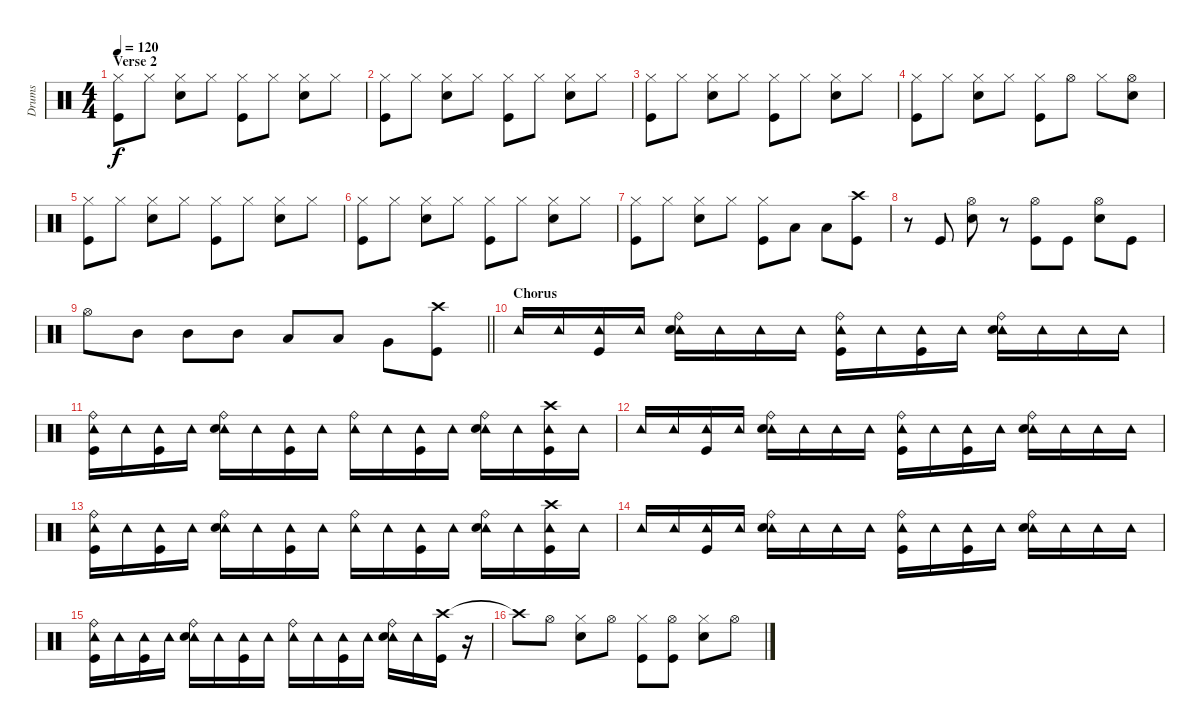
\track ("Drums" "Drums") {instrument percussion}
\staff {score}
\articulation defaults
\ts (4 4)
\section ("" "Verse 2")
\tempo 120
\clef neutral
\ks c
("Hi-Hat (closed)" "Kick (hit)").8{dy f} "Hi-Hat (closed)".8 ("Snare (hit) 2" "Hi-Hat (closed)").8 "Hi-Hat (closed)".8 ("Hi-Hat (closed)" "Kick (hit)").8 "Hi-Hat (closed)".8 ("Snare (hit) 2" "Hi-Hat (closed)").8 "Hi-Hat (closed)".8 |
("Hi-Hat (closed)" "Kick (hit)").8 "Hi-Hat (closed)".8 ("Snare (hit) 2" "Hi-Hat (closed)").8 "Hi-Hat (closed)".8 ("Hi-Hat (closed)" "Kick (hit)").8 "Hi-Hat (closed)".8 ("Snare (hit) 2" "Hi-Hat (closed)").8 "Hi-Hat (closed)".8 |
("Hi-Hat (closed)" "Kick (hit)").8 "Hi-Hat (closed)".8 ("Snare (hit) 2" "Hi-Hat (closed)").8 "Hi-Hat (closed)".8 ("Hi-Hat (closed)" "Kick (hit)").8 "Hi-Hat (closed)".8 ("Snare (hit) 2" "Hi-Hat (closed)").8 "Hi-Hat (closed)".8 |
("Hi-Hat (closed)" "Kick (hit)").8 "Hi-Hat (closed)".8 ("Snare (hit) 2" "Hi-Hat (closed)").8 "Hi-Hat (closed)".8 ("Hi-Hat (closed)" "Kick (hit)").8 "Hi-Hat (open)".8 "Hi-Hat (closed)".8 ("Snare (hit) 2" "Hi-Hat (open)").8 |
("Hi-Hat (closed)" "Kick (hit)").8 "Hi-Hat (closed)".8 ("Snare (hit) 2" "Hi-Hat (closed)").8 "Hi-Hat (closed)".8 ("Hi-Hat (closed)" "Kick (hit)").8 "Hi-Hat (closed)".8 ("Snare (hit) 2" "Hi-Hat (closed)").8 "Hi-Hat (closed)".8 |
("Hi-Hat (closed)" "Kick (hit)").8 "Hi-Hat (closed)".8 ("Snare (hit) 2" "Hi-Hat (closed)").8 "Hi-Hat (closed)".8 ("Hi-Hat (closed)" "Kick (hit)").8 "Hi-Hat (closed)".8 ("Snare (hit) 2" "Hi-Hat (closed)").8 "Hi-Hat (closed)".8 |
("Hi-Hat (closed)" "Kick (hit)").8 "Hi-Hat (closed)".8 ("Snare (hit) 2" "Hi-Hat (closed)").8 "Hi-Hat (closed)".8 ("Hi-Hat (closed)" "Kick (hit)").8 "Low Tom (hit)".8 "Low Tom (hit)".8 ("Crash high (hit)" "Kick (hit)").8 |
r.8 "Kick (hit)".8 ("Hi-Hat (open)" "Snare (hit) 2").8 r.8 ("Hi-Hat (open)" "Kick (hit)").8 "Kick (hit)".8 ("Hi-Hat (open)" "Snare (hit) 2").8 "Kick (hit)".8 |
\barLineRight lightlight "Hi-Hat (open)".8 "Mid Tom (hit)".8 "Mid Tom (hit)".8 "Mid Tom (hit)".8 "Low Tom (hit)".8 "Low Tom (hit)".8 "Very Low Tom (hit)".8
("Crash high (hit)" "Kick (hit)").8 |
\section ("" "Chorus")
"Tambourine (hit)".16 "Tambourine (hit)".16 ("Tambourine (hit)" "Kick (hit)").16 "Tambourine (hit)".16 ("Tambourine (hit)" "Ride (bell)" "Snare (hit) 2").16 "Tambourine (hit)".16 "Tambourine (hit)".16 "Tambourine (hit)".16 ("Tambourine (hit)" "Ride (bell)" "Kick (hit)").16 "Tambourine (hit)".16 ("Tambourine (hit)" "Kick (hit)").16 "Tambourine (hit)".16 ("Tambourine (hit)" "Ride (bell)" "Snare (hit) 2").16 "Tambourine (hit)".16 "Tambourine (hit)".16 "Tambourine (hit)".16 |
("Tambourine (hit)" "Ride (bell)" "Kick (hit)").16 "Tambourine (hit)".16 ("Tambourine (hit)" "Kick (hit)").16 "Tambourine (hit)".16 ("Tambourine (hit)" "Ride (bell)" "Snare (hit) 2").16 "Tambourine (hit)".16 ("Tambourine (hit)" "Kick (hit)").16 "Tambourine (hit)".16 ("Tambourine (hit)" "Ride (bell)").16 "Tambourine (hit)".16 ("Tambourine (hit)" "Kick (hit)").16 "Tambourine (hit)".16 ("Tambourine (hit)" "Ride (bell)" "Snare (hit) 2").16 "Tambourine (hit)".16 ("Tambourine (hit)" "Crash high (hit)" "Kick (hit)").16 "Tambourine (hit)".16 |
"Tambourine (hit)".16 "Tambourine (hit)".16 ("Tambourine (hit)" "Kick (hit)").16 "Tambourine (hit)".16 ("Tambourine (hit)" "Ride (bell)" "Snare (hit) 2").16 "Tambourine (hit)".16 "Tambourine (hit)".16 "Tambourine (hit)".16 ("Tambourine (hit)" "Ride (bell)" "Kick (hit)").16 "Tambourine (hit)".16 ("Tambourine (hit)" "Kick (hit)").16 "Tambourine (hit)".16 ("Tambourine (hit)" "Ride (bell)" "Snare (hit) 2").16 "Tambourine (hit)".16 "Tambourine (hit)".16 "Tambourine (hit)".16 |
("Tambourine (hit)" "Ride (bell)" "Kick (hit)").16 "Tambourine (hit)".16 ("Tambourine (hit)" "Kick (hit)").16 "Tambourine (hit)".16 ("Tambourine (hit)" "Ride (bell)" "Snare (hit) 2").16 "Tambourine (hit)".16 ("Tambourine (hit)" "Kick (hit)").16 "Tambourine (hit)".16 ("Tambourine (hit)" "Ride (bell)").16 "Tambourine (hit)".16 ("Tambourine (hit)" "Kick (hit)").16 "Tambourine (hit)".16 ("Tambourine (hit)" "Ride (bell)" "Snare (hit) 2").16 "Tambourine (hit)".16 ("Tambourine (hit)" "Crash high (hit)" "Kick (hit)").16 "Tambourine (hit)".16 |
"Tambourine (hit)".16 "Tambourine (hit)".16 ("Tambourine (hit)" "Kick (hit)").16 "Tambourine (hit)".16 ("Tambourine (hit)" "Ride (bell)" "Snare (hit) 2").16 "Tambourine (hit)".16 "Tambourine (hit)".16 "Tambourine (hit)".16 ("Tambourine (hit)" "Ride (bell)" "Kick (hit)").16 "Tambourine (hit)".16 ("Tambourine (hit)" "Kick (hit)").16 "Tambourine (hit)".16 ("Tambourine (hit)" "Ride (bell)" "Snare (hit) 2").16 "Tambourine (hit)".16 "Tambourine (hit)".16 "Tambourine (hit)".16 |
("Tambourine (hit)" "Ride (bell)" "Kick (hit)").16 "Tambourine (hit)".16 ("Tambourine (hit)" "Kick (hit)").16 "Tambourine (hit)".16 ("Tambourine (hit)" "Ride (bell)" "Snare (hit) 2").16 "Tambourine (hit)".16 ("Tambourine (hit)" "Kick (hit)").16 "Tambourine (hit)".16 ("Tambourine (hit)" "Ride (bell)").16 "Tambourine (hit)".16 ("Tambourine (hit)" "Kick (hit)").16 "Tambourine (hit)".16 ("Tambourine (hit)" "Ride (bell)" "Snare (hit) 2").16 "Tambourine (hit)".16 ("Crash high (hit)" "Kick (hit)").16 r.16 |
"Crash high (hit)"{t}.8 "Hi-Hat (open)".8 ("Hi-Hat (closed)" "Snare (hit) 2").8 "Hi-Hat (open)".8 ("Hi-Hat (closed)" "Kick (hit)").8 ("Hi-Hat (open)" "Kick (hit)").8 ("Hi-Hat (closed)" "Snare (hit) 2").8 "Hi-Hat (open)".8
